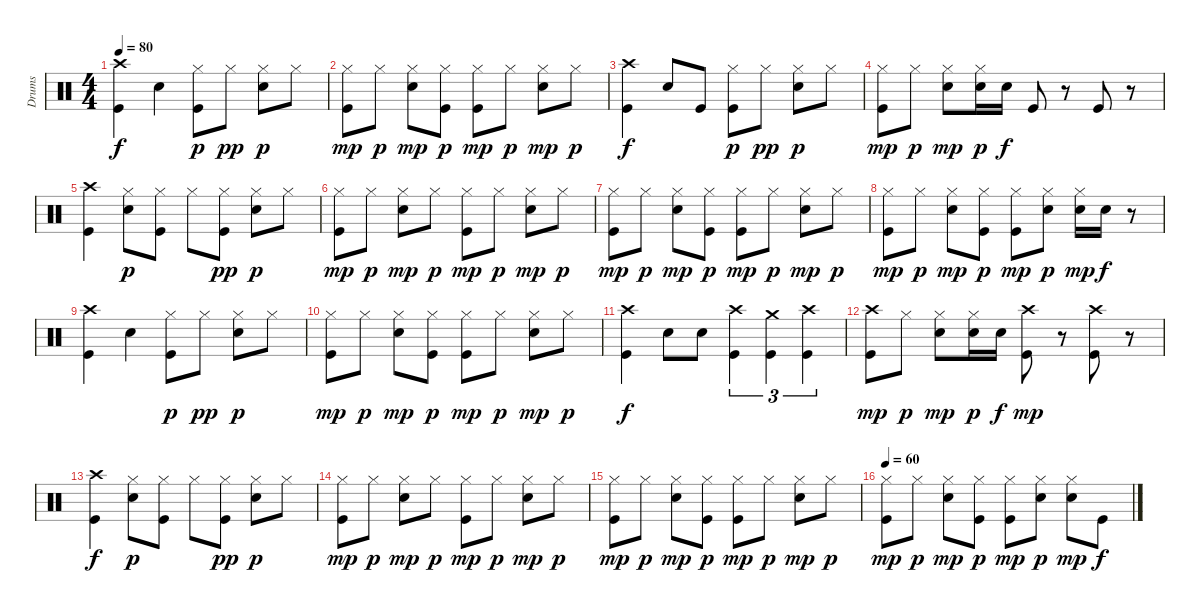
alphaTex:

\track ("Drums" "Drums") {instrument percussion}
\staff {score}
\articulation defaults
\ts (4 4)
\tempo 80
\clef neutral
\ks c
("Crash high (hit)" "Kick (hit)").4{dy f} "Snare (hit) 2".4 ("Kick (hit)" "Hi-Hat (closed)").8{dy p} "Hi-Hat (closed)".8{dy pp} ("Hi-Hat (closed)" "Snare (hit) 2").8{dy p} "Hi-Hat (closed)".8 |
("Kick (hit)" "Hi-Hat (closed)").8{dy mp} "Hi-Hat (closed)".8{dy p} ("Hi-Hat (closed)" "Snare (hit) 2").8{dy mp} ("Kick (hit)" "Hi-Hat (closed)").8{dy p} ("Hi-Hat (closed)" "Kick (hit)").8{dy mp} "Hi-Hat (closed)".8{dy p} ("Snare (hit) 2" "Hi-Hat (closed)").8{dy mp} "Hi-Hat (closed)".8{dy p} |
("Kick (hit)" "Crash high (hit)").4{dy f} "Snare (hit) 2".8 "Kick (hit)".8 ("Kick (hit)" "Hi-Hat (closed)").8{dy p} "Hi-Hat (closed)".8{dy pp} ("Hi-Hat (closed)" "Snare (hit) 2").8{dy p} "Hi-Hat (closed)".8 |
("Kick (hit)" "Hi-Hat (closed)").8{dy mp} "Hi-Hat (closed)".8{dy p} ("Snare (hit) 2" "Hi-Hat (closed)").8{dy mp} ("Snare (hit) 2" "Hi-Hat (closed)").16{dy p} "Snare (hit) 2".16{dy f} "Kick (hit)".8 r.8 "Kick (hit)".8 r.8 |
("Kick (hit)" "Crash high (hit)").4 ("Snare (hit) 2" "Hi-Hat (closed)").8{dy p} ("Kick (hit)" "Hi-Hat (closed)").8 "Hi-Hat (closed)".8 ("Kick (hit)" "Hi-Hat (closed)").8{dy pp} ("Snare (hit) 2" "Hi-Hat (closed)").8{dy p} "Hi-Hat (closed)".8 |
("Kick (hit)" "Hi-Hat (closed)").8{dy mp} "Hi-Hat (closed)".8{dy p} ("Snare (hit) 2" "Hi-Hat (closed)").8{dy mp} "Hi-Hat (closed)".8{dy p} ("Kick (hit)" "Hi-Hat (closed)").8{dy mp} "Hi-Hat (closed)".8{dy p} ("Snare (hit) 2" "Hi-Hat (closed)").8{dy mp} "Hi-Hat (closed)".8{dy p} |
("Kick (hit)" "Hi-Hat (closed)").8{dy mp} "Hi-Hat (closed)".8{dy p} ("Snare (hit) 2" "Hi-Hat (closed)").8{dy mp} ("Kick (hit)" "Hi-Hat (closed)").8{dy p} ("Kick (hit)" "Hi-Hat (closed)").8{dy mp} "Hi-Hat (closed)".8{dy p} ("Snare (hit) 2" "Hi-Hat (closed)").8{dy mp} "Hi-Hat (closed)".8{dy p} |
("Kick (hit)" "Hi-Hat (closed)").8{dy mp} "Hi-Hat (closed)".8{dy p} ("Snare (hit) 2" "Hi-Hat (closed)").8{dy mp} ("Kick (hit)" "Hi-Hat (closed)").8{dy p} ("Kick (hit)" "Hi-Hat (closed)").8{dy mp} ("Snare (hit) 2" "Hi-Hat (closed)").8{dy p} ("Snare (hit) 2" "Hi-Hat (closed)").16{dy mp} "Snare (hit) 2".16{dy f} r.8 |
("Crash high (hit)" "Kick (hit)").4 "Snare (hit) 2".4 ("Kick (hit)" "Hi-Hat (closed)").8{dy p} "Hi-Hat (closed)".8{dy pp} ("Hi-Hat (closed)" "Snare (hit) 2").8{dy p} "Hi-Hat (closed)".8 |
("Kick (hit)" "Hi-Hat (closed)").8{dy mp} "Hi-Hat (closed)".8{dy p} ("Hi-Hat (closed)" "Snare (hit) 2").8{dy mp} ("Kick (hit)" "Hi-Hat (closed)").8{dy p} ("Hi-Hat (closed)" "Kick (hit)").8{dy mp} "Hi-Hat (closed)".8{dy p} ("Snare (hit) 2" "Hi-Hat (closed)").8{dy mp} "Hi-Hat (closed)".8{dy p} |
("Kick (hit)" "Crash high (hit)").4{dy f} "Snare (hit) 2".8 "Snare (hit) 2".8 ("Crash high (hit)" "Kick (hit)").4{tu (3 2)} ("Crash medium (hit)" "Kick (hit)").4{tu (3 2)} ("Crash high (hit)" "Kick (hit)").4{tu (3 2)} |
("Kick (hit)" "Crash high (hit)").8{dy mp} "Hi-Hat (closed)".8{dy p} ("Snare (hit) 2" "Hi-Hat (closed)").8{dy mp} ("Snare (hit) 2" "Hi-Hat (closed)").16{dy p} "Snare (hit) 2".16{dy f} ("Crash high (hit)" "Kick (hit)").8{dy mp} r.8 ("Crash high (hit)" "Kick (hit)").8 r.8 |
("Kick (hit)" "Crash high (hit)").4{dy f} ("Snare (hit) 2" "Hi-Hat (closed)").8{dy p} ("Kick (hit)" "Hi-Hat (closed)").8 "Hi-Hat (closed)".8 ("Kick (hit)" "Hi-Hat (closed)").8{dy pp} ("Snare (hit) 2" "Hi-Hat (closed)").8{dy p} "Hi-Hat (closed)".8 |
("Kick (hit)" "Hi-Hat (closed)").8{dy mp} "Hi-Hat (closed)".8{dy p} ("Snare (hit) 2" "Hi-Hat (closed)").8{dy mp} "Hi-Hat (closed)".8{dy p} ("Kick (hit)" "Hi-Hat (closed)").8{dy mp} "Hi-Hat (closed)".8{dy p} ("Snare (hit) 2" "Hi-Hat (closed)").8{dy mp} "Hi-Hat (closed)".8{dy p} |
("Kick (hit)" "Hi-Hat (closed)").8{dy mp} "Hi-Hat (closed)".8{dy p} ("Snare (hit) 2" "Hi-Hat (closed)").8{dy mp} ("Kick (hit)" "Hi-Hat (closed)").8{dy p} ("Kick (hit)" "Hi-Hat (closed)").8{dy mp} "Hi-Hat (closed)".8{dy p} ("Snare (hit) 2" "Hi-Hat (closed)").8{dy mp} "Hi-Hat (closed)".8{dy p} |
\tempo 60
("Kick (hit)" "Hi-Hat (closed)").8{dy mp} "Hi-Hat (closed)".8{dy p} ("Snare (hit) 2" "Hi-Hat (closed)").8{dy mp} ("Kick (hit)" "Hi-Hat (closed)").8{dy p} ("Kick (hit)" "Hi-Hat (closed)").8{dy mp} ("Snare (hit) 2" "Hi-Hat (closed)").8{dy p} ("Snare (hit) 2" "Hi-Hat (closed)").8{dy mp} "Kick (hit)".8{dy f}
